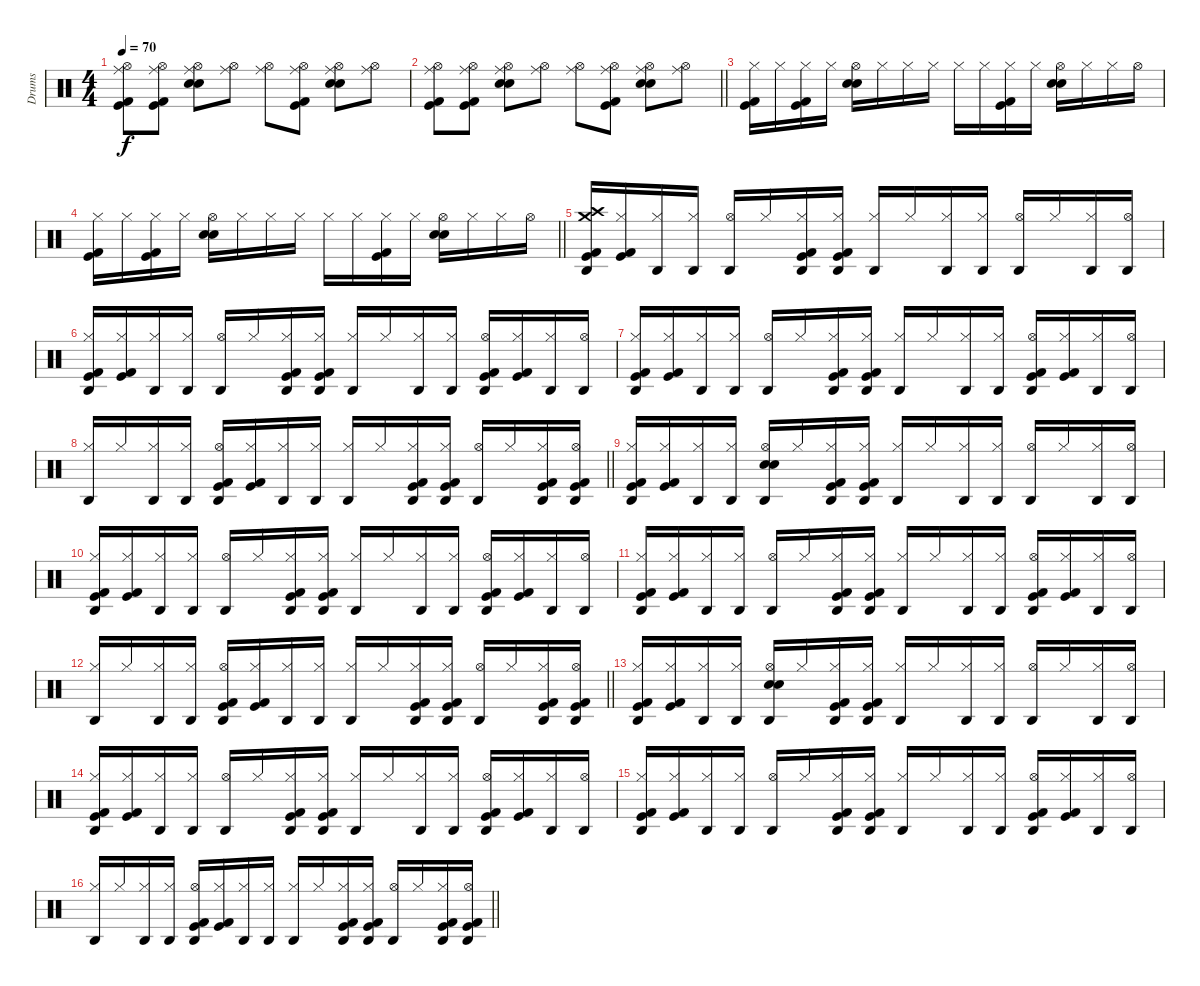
\track ("Drums" "Drums") {instrument percussion}
\staff {score}
\articulation defaults
\ts (4 4)
\tempo 70
\clef neutral
\ks c
("Ride (middle)" "Hi-Hat (open)" "Kick (hit)" "Kick (hit) 2").8{dy f} ("Ride (middle)" "Hi-Hat (open)" "Kick (hit)" "Kick (hit) 2").8 ("Ride (middle)" "Hi-Hat (open)" "Snare (hit) 2" "Electric Snare (hit)").8 ("Ride (middle)" "Hi-Hat (open)").8 ("Ride (middle)" "Hi-Hat (open)").8 ("Ride (middle)" "Hi-Hat (open)" "Kick (hit)" "Kick (hit) 2").8 ("Ride (middle)" "Hi-Hat (open)" "Snare (hit) 2" "Electric Snare (hit)").8 ("Ride (middle)" "Hi-Hat (open)").8 |
\barLineRight lightlight
("Ride (middle)" "Hi-Hat (open)" "Kick (hit)" "Kick (hit) 2").8 ("Ride (middle)" "Hi-Hat (open)" "Kick (hit)" "Kick (hit) 2").8 ("Ride (middle)" "Hi-Hat (open)" "Snare (hit) 2" "Electric Snare (hit)").8 ("Ride (middle)" "Hi-Hat (open)").8 ("Ride (middle)" "Hi-Hat (open)").8 ("Ride (middle)" "Hi-Hat (open)" "Kick (hit)" "Kick (hit) 2").8 ("Ride (middle)" "Hi-Hat (open)" "Snare (hit) 2" "Electric Snare (hit)").8 ("Ride (middle)" "Hi-Hat (open)").8 |
("Hi-Hat (closed)" "Kick (hit)" "Kick (hit) 2").16 "Hi-Hat (closed)".16 ("Hi-Hat (closed)" "Kick (hit)" "Kick (hit) 2").16 "Hi-Hat (closed)".16 ("Hi-Hat (open)" "Snare (hit) 2" "Electric Snare (hit)").16 "Hi-Hat (closed)".16 "Hi-Hat (closed)".16 "Hi-Hat (closed)".16 "Hi-Hat (closed)".16 "Hi-Hat (closed)".16 ("Hi-Hat (closed)" "Kick (hit)" "Kick (hit) 2").16 "Hi-Hat (closed)".16 ("Hi-Hat (open)" "Snare (hit) 2" "Electric Snare (hit)").16 "Hi-Hat (closed)".16 "Hi-Hat (closed)".16 "Hi-Hat (open)".16 |
\barLineRight lightlight
("Hi-Hat (closed)" "Kick (hit)" "Kick (hit) 2").16 "Hi-Hat (closed)".16 ("Hi-Hat (closed)" "Kick (hit)" "Kick (hit) 2").16 "Hi-Hat (closed)".16 ("Hi-Hat (open)" "Snare (hit) 2" "Electric Snare (hit)").16 "Hi-Hat (closed)".16 "Hi-Hat (closed)".16 "Hi-Hat (closed)".16 "Hi-Hat (closed)".16 "Hi-Hat (closed)".16 ("Hi-Hat (closed)" "Kick (hit)" "Kick (hit) 2").16 "Hi-Hat (closed)".16 ("Hi-Hat (open)" "Snare (hit) 2" "Electric Snare (hit)").16 "Hi-Hat (closed)".16 "Hi-Hat (closed)".16 "Hi-Hat (open)".16 |
\section ("" "")
("Agogo high (hit)" "Crash high (hit)" "Crash medium (hit)" "Kick (hit)" "Kick (hit) 2").16 ("Hi-Hat (closed)" "Kick (hit)" "Kick (hit) 2").16 ("Agogo high (hit)" "Hi-Hat (closed)").16 ("Agogo high (hit)" "Hi-Hat (closed)").16 ("Agogo high (hit)" "Hi-Hat (open)").16 "Hi-Hat (closed)".16 ("Agogo high (hit)" "Hi-Hat (closed)" "Kick (hit)" "Kick (hit) 2").16 ("Agogo high (hit)" "Hi-Hat (closed)" "Kick (hit)" "Kick (hit) 2").16 ("Agogo high (hit)" "Hi-Hat (closed)").16 "Hi-Hat (closed)".16 ("Agogo high (hit)" "Hi-Hat (closed)").16 ("Agogo high (hit)" "Hi-Hat (closed)").16 ("Agogo high (hit)" "Hi-Hat (open)").16 "Hi-Hat (closed)".16 ("Agogo high (hit)" "Hi-Hat (closed)").16 ("Agogo high (hit)" "Hi-Hat (open)").16 |
("Agogo high (hit)" "Hi-Hat (closed)" "Kick (hit)" "Kick (hit) 2").16 ("Hi-Hat (closed)" "Kick (hit)" "Kick (hit) 2").16 ("Agogo high (hit)" "Hi-Hat (closed)").16 ("Agogo high (hit)" "Hi-Hat (closed)").16 ("Agogo high (hit)" "Hi-Hat (open)").16 "Hi-Hat (closed)".16 ("Agogo high (hit)" "Hi-Hat (closed)" "Kick (hit)" "Kick (hit) 2").16 ("Agogo high (hit)" "Hi-Hat (closed)" "Kick (hit)" "Kick (hit) 2").16 ("Agogo high (hit)" "Hi-Hat (closed)").16 "Hi-Hat (closed)".16 ("Agogo high (hit)" "Hi-Hat (closed)").16 ("Agogo high (hit)" "Hi-Hat (closed)").16 ("Agogo high (hit)" "Hi-Hat (open)" "Kick (hit)" "Kick (hit) 2").16 ("Hi-Hat (closed)" "Kick (hit)" "Kick (hit) 2").16 ("Agogo high (hit)" "Hi-Hat (closed)").16 ("Agogo high (hit)" "Hi-Hat (open)").16 |
("Agogo high (hit)" "Hi-Hat (closed)" "Kick (hit)" "Kick (hit) 2").16 ("Hi-Hat (closed)" "Kick (hit)" "Kick (hit) 2").16 ("Agogo high (hit)" "Hi-Hat (closed)").16 ("Agogo high (hit)" "Hi-Hat (closed)").16 ("Agogo high (hit)" "Hi-Hat (open)").16 "Hi-Hat (closed)".16 ("Agogo high (hit)" "Hi-Hat (closed)" "Kick (hit)" "Kick (hit) 2").16 ("Agogo high (hit)" "Hi-Hat (closed)" "Kick (hit)" "Kick (hit) 2").16 ("Agogo high (hit)" "Hi-Hat (closed)").16 "Hi-Hat (closed)".16 ("Agogo high (hit)" "Hi-Hat (closed)").16 ("Agogo high (hit)" "Hi-Hat (closed)").16 ("Agogo high (hit)" "Hi-Hat (open)" "Kick (hit)" "Kick (hit) 2").16 ("Hi-Hat (closed)" "Kick (hit)" "Kick (hit) 2").16 ("Agogo high (hit)" "Hi-Hat (closed)").16 ("Agogo high (hit)" "Hi-Hat (open)").16 |
\barLineRight lightlight
("Agogo high (hit)" "Hi-Hat (closed)").16 "Hi-Hat (closed)".16 ("Agogo high (hit)" "Hi-Hat (closed)").16 ("Agogo high (hit)" "Hi-Hat (closed)").16 ("Agogo high (hit)" "Hi-Hat (open)" "Kick (hit)" "Kick (hit) 2").16 ("Hi-Hat (closed)" "Kick (hit)" "Kick (hit) 2").16 ("Agogo high (hit)" "Hi-Hat (closed)").16 ("Agogo high (hit)" "Hi-Hat (closed)").16 ("Agogo high (hit)" "Hi-Hat (closed)").16 "Hi-Hat (closed)".16 ("Agogo high (hit)" "Hi-Hat (closed)" "Kick (hit)" "Kick (hit) 2").16 ("Agogo high (hit)" "Hi-Hat (closed)" "Kick (hit)" "Kick (hit) 2").16 ("Agogo high (hit)" "Hi-Hat (open)").16 "Hi-Hat (closed)".16 ("Agogo high (hit)" "Hi-Hat (closed)" "Kick (hit)" "Kick (hit) 2").16 ("Agogo high (hit)" "Hi-Hat (open)" "Kick (hit)" "Kick (hit) 2").16 |
("Agogo high (hit)" "Hi-Hat (closed)" "Kick (hit)" "Kick (hit) 2").16 ("Hi-Hat (closed)" "Kick (hit)" "Kick (hit) 2").16 ("Agogo high (hit)" "Hi-Hat (closed)").16 ("Agogo high (hit)" "Hi-Hat (closed)").16 ("Agogo high (hit)" "Hi-Hat (open)" "Snare (hit) 2" "Electric Snare (hit)").16 "Hi-Hat (closed)".16 ("Agogo high (hit)" "Hi-Hat (closed)" "Kick (hit)" "Kick (hit) 2").16 ("Agogo high (hit)" "Hi-Hat (closed)" "Kick (hit)" "Kick (hit) 2").16 ("Agogo high (hit)" "Hi-Hat (closed)").16 "Hi-Hat (closed)".16 ("Agogo high (hit)" "Hi-Hat (closed)").16 ("Agogo high (hit)" "Hi-Hat (closed)").16 ("Agogo high (hit)" "Hi-Hat (open)").16 "Hi-Hat (closed)".16 ("Agogo high (hit)" "Hi-Hat (closed)").16 ("Agogo high (hit)" "Hi-Hat (open)").16 |
("Agogo high (hit)" "Hi-Hat (closed)" "Kick (hit)" "Kick (hit) 2").16 ("Hi-Hat (closed)" "Kick (hit)" "Kick (hit) 2").16 ("Agogo high (hit)" "Hi-Hat (closed)").16 ("Agogo high (hit)" "Hi-Hat (closed)").16 ("Agogo high (hit)" "Hi-Hat (open)").16 "Hi-Hat (closed)".16 ("Agogo high (hit)" "Hi-Hat (closed)" "Kick (hit)" "Kick (hit) 2").16 ("Agogo high (hit)" "Hi-Hat (closed)" "Kick (hit)" "Kick (hit) 2").16 ("Agogo high (hit)" "Hi-Hat (closed)").16 "Hi-Hat (closed)".16 ("Agogo high (hit)" "Hi-Hat (closed)").16 ("Agogo high (hit)" "Hi-Hat (closed)").16 ("Agogo high (hit)" "Hi-Hat (open)" "Kick (hit)" "Kick (hit) 2").16 ("Hi-Hat (closed)" "Kick (hit)" "Kick (hit) 2").16 ("Agogo high (hit)" "Hi-Hat (closed)").16 ("Agogo high (hit)" "Hi-Hat (open)").16 |
("Agogo high (hit)" "Hi-Hat (closed)" "Kick (hit)" "Kick (hit) 2").16 ("Hi-Hat (closed)" "Kick (hit)" "Kick (hit) 2").16 ("Agogo high (hit)" "Hi-Hat (closed)").16 ("Agogo high (hit)" "Hi-Hat (closed)").16 ("Agogo high (hit)" "Hi-Hat (open)").16 "Hi-Hat (closed)".16 ("Agogo high (hit)" "Hi-Hat (closed)" "Kick (hit)" "Kick (hit) 2").16 ("Agogo high (hit)" "Hi-Hat (closed)" "Kick (hit)" "Kick (hit) 2").16 ("Agogo high (hit)" "Hi-Hat (closed)").16 "Hi-Hat (closed)".16 ("Agogo high (hit)" "Hi-Hat (closed)").16 ("Agogo high (hit)" "Hi-Hat (closed)").16 ("Agogo high (hit)" "Hi-Hat (open)" "Kick (hit)" "Kick (hit) 2").16 ("Hi-Hat (closed)" "Kick (hit)" "Kick (hit) 2").16 ("Agogo high (hit)" "Hi-Hat (closed)").16 ("Agogo high (hit)" "Hi-Hat (open)").16 |
\barLineRight lightlight
("Agogo high (hit)" "Hi-Hat (closed)").16 "Hi-Hat (closed)".16 ("Agogo high (hit)" "Hi-Hat (closed)").16 ("Agogo high (hit)" "Hi-Hat (closed)").16 ("Agogo high (hit)" "Hi-Hat (open)" "Kick (hit)" "Kick (hit) 2").16 ("Hi-Hat (closed)" "Kick (hit)" "Kick (hit) 2").16 ("Agogo high (hit)" "Hi-Hat (closed)").16 ("Agogo high (hit)" "Hi-Hat (closed)").16 ("Agogo high (hit)" "Hi-Hat (closed)").16 "Hi-Hat (closed)".16 ("Agogo high (hit)" "Hi-Hat (closed)" "Kick (hit)" "Kick (hit) 2").16 ("Agogo high (hit)" "Hi-Hat (closed)" "Kick (hit)" "Kick (hit) 2").16 ("Agogo high (hit)" "Hi-Hat (open)").16 "Hi-Hat (closed)".16 ("Agogo high (hit)" "Hi-Hat (closed)" "Kick (hit)" "Kick (hit) 2").16 ("Agogo high (hit)" "Hi-Hat (open)" "Kick (hit)" "Kick (hit) 2").16 |
("Agogo high (hit)" "Hi-Hat (closed)" "Kick (hit)" "Kick (hit) 2").16 ("Hi-Hat (closed)" "Kick (hit)" "Kick (hit) 2").16 ("Agogo high (hit)" "Hi-Hat (closed)").16 ("Agogo high (hit)" "Hi-Hat (closed)").16 ("Agogo high (hit)" "Hi-Hat (open)" "Snare (hit) 2" "Electric Snare (hit)").16 "Hi-Hat (closed)".16 ("Agogo high (hit)" "Hi-Hat (closed)" "Kick (hit)" "Kick (hit) 2").16 ("Agogo high (hit)" "Hi-Hat (closed)" "Kick (hit)" "Kick (hit) 2").16 ("Agogo high (hit)" "Hi-Hat (closed)").16 "Hi-Hat (closed)".16 ("Agogo high (hit)" "Hi-Hat (closed)").16 ("Agogo high (hit)" "Hi-Hat (closed)").16 ("Agogo high (hit)" "Hi-Hat (open)").16 "Hi-Hat (closed)".16 ("Agogo high (hit)" "Hi-Hat (closed)").16 ("Agogo high (hit)" "Hi-Hat (open)").16 |
("Agogo high (hit)" "Hi-Hat (closed)" "Kick (hit)" "Kick (hit) 2").16 ("Hi-Hat (closed)" "Kick (hit)" "Kick (hit) 2").16 ("Agogo high (hit)" "Hi-Hat (closed)").16 ("Agogo high (hit)" "Hi-Hat (closed)").16 ("Agogo high (hit)" "Hi-Hat (open)").16 "Hi-Hat (closed)".16 ("Agogo high (hit)" "Hi-Hat (closed)" "Kick (hit)" "Kick (hit) 2").16 ("Agogo high (hit)" "Hi-Hat (closed)" "Kick (hit)" "Kick (hit) 2").16 ("Agogo high (hit)" "Hi-Hat (closed)").16 "Hi-Hat (closed)".16 ("Agogo high (hit)" "Hi-Hat (closed)").16 ("Agogo high (hit)" "Hi-Hat (closed)").16 ("Agogo high (hit)" "Hi-Hat (open)" "Kick (hit)" "Kick (hit) 2").16 ("Hi-Hat (closed)" "Kick (hit)" "Kick (hit) 2").16 ("Agogo high (hit)" "Hi-Hat (closed)").16 ("Agogo high (hit)" "Hi-Hat (open)").16 |
("Agogo high (hit)" "Hi-Hat (closed)" "Kick (hit)" "Kick (hit) 2").16 ("Hi-Hat (closed)" "Kick (hit)" "Kick (hit) 2").16 ("Agogo high (hit)" "Hi-Hat (closed)").16 ("Agogo high (hit)" "Hi-Hat (closed)").16 ("Agogo high (hit)" "Hi-Hat (open)").16 "Hi-Hat (closed)".16 ("Agogo high (hit)" "Hi-Hat (closed)" "Kick (hit)" "Kick (hit) 2").16 ("Agogo high (hit)" "Hi-Hat (closed)" "Kick (hit)" "Kick (hit) 2").16 ("Agogo high (hit)" "Hi-Hat (closed)").16 "Hi-Hat (closed)".16 ("Agogo high (hit)" "Hi-Hat (closed)").16 ("Agogo high (hit)" "Hi-Hat (closed)").16 ("Agogo high (hit)" "Hi-Hat (open)" "Kick (hit)" "Kick (hit) 2").16 ("Hi-Hat (closed)" "Kick (hit)" "Kick (hit) 2").16 ("Agogo high (hit)" "Hi-Hat (closed)").16 ("Agogo high (hit)" "Hi-Hat (open)").16 |
\barLineRight lightlight
("Agogo high (hit)" "Hi-Hat (closed)").16 "Hi-Hat (closed)".16 ("Agogo high (hit)" "Hi-Hat (closed)").16 ("Agogo high (hit)" "Hi-Hat (closed)").16 ("Agogo high (hit)" "Hi-Hat (open)" "Kick (hit)" "Kick (hit) 2").16 ("Hi-Hat (closed)" "Kick (hit)" "Kick (hit) 2").16 ("Agogo high (hit)" "Hi-Hat (closed)").16 ("Agogo high (hit)" "Hi-Hat (closed)").16 ("Agogo high (hit)" "Hi-Hat (closed)").16 "Hi-Hat (closed)".16 ("Agogo high (hit)" "Hi-Hat (closed)" "Kick (hit)" "Kick (hit) 2").16 ("Agogo high (hit)" "Hi-Hat (closed)" "Kick (hit)" "Kick (hit) 2").16 ("Agogo high (hit)" "Hi-Hat (open)").16 "Hi-Hat (closed)".16 ("Agogo high (hit)" "Hi-Hat (closed)" "Kick (hit)" "Kick (hit) 2").16 ("Agogo high (hit)" "Hi-Hat (open)" "Kick (hit)" "Kick (hit) 2").16
